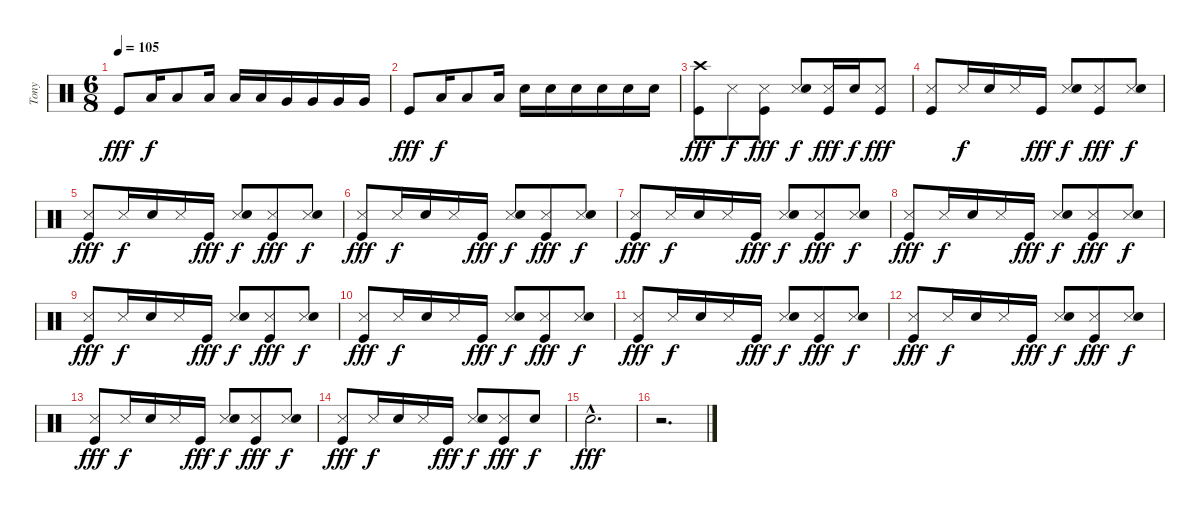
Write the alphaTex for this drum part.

\track ("Tony" "Tony") {instrument percussion}
\staff {score}
\articulation defaults
\ts (6 8)
\tempo 105
\clef neutral
\ks c "Kick (hit)".8{dy fff} "Low Tom (hit)".16{dy f} "Low Tom (hit)".8 "Low Tom (hit)".16 "Low Tom (hit)".16 "Low Tom (hit)".16 "Very Low Tom (hit)".16 "Very Low Tom (hit)".16 "Very Low Tom (hit)".16 "Very Low Tom (hit)".16
|
"Kick (hit)".8{dy fff} "Low Tom (hit)".16{dy f} "Low Tom (hit)".8 "Low Tom (hit)".16 "Snare (hit) 2".16 "Snare (hit) 2".16 "Snare (hit) 2".16 "Snare (hit) 2".16 "Snare (hit) 2".16 "Snare (hit) 2".16 |
("Crash high (hit)" "Kick (hit)").8{dy fff} "Snare (side stick) 3".8{dy f} ("Snare (side stick) 3" "Kick (hit)").8{dy fff} ("Snare (side stick) 3" "Snare (hit) 2").8{dy f} ("Snare (side stick) 3" "Kick (hit)").16{dy fff} "Snare (hit) 2".16{dy f} ("Snare (side stick) 3" "Kick (hit)").8{dy fff} |
("Snare (side stick) 3" "Kick (hit)").8 "Snare (side stick) 3".16{dy f} "Snare (hit) 2".16 "Snare (side stick) 3".16 "Kick (hit)".16{dy fff} ("Snare (side stick) 3" "Snare (hit) 2").8{dy f} ("Snare (side stick) 3" "Kick (hit)").8{dy fff} ("Snare (side stick) 3" "Snare (hit) 2").8{dy f} |
("Snare (side stick) 3" "Kick (hit)").8{dy fff} "Snare (side stick) 3".16{dy f} "Snare (hit) 2".16 "Snare (side stick) 3".16 "Kick (hit)".16{dy fff} ("Snare (side stick) 3" "Snare (hit) 2").8{dy f} ("Snare (side stick) 3" "Kick (hit)").8{dy fff} ("Snare (side stick) 3" "Snare (hit) 2").8{dy f} |
("Snare (side stick) 3" "Kick (hit)").8{dy fff} "Snare (side stick) 3".16{dy f} "Snare (hit) 2".16 "Snare (side stick) 3".16 "Kick (hit)".16{dy fff} ("Snare (side stick) 3" "Snare (hit) 2").8{dy f} ("Snare (side stick) 3" "Kick (hit)").8{dy fff} ("Snare (side stick) 3" "Snare (hit) 2").8{dy f} |
("Snare (side stick) 3" "Kick (hit)").8{dy fff} "Snare (side stick) 3".16{dy f} "Snare (hit) 2".16 "Snare (side stick) 3".16 "Kick (hit)".16{dy fff} ("Snare (side stick) 3" "Snare (hit) 2").8{dy f} ("Snare (side stick) 3" "Kick (hit)").8{dy fff} ("Snare (side stick) 3" "Snare (hit) 2").8{dy f} |
("Snare (side stick) 3" "Kick (hit)").8{dy fff} "Snare (side stick) 3".16{dy f} "Snare (hit) 2".16 "Snare (side stick) 3".16 "Kick (hit)".16{dy fff} ("Snare (side stick) 3" "Snare (hit) 2").8{dy f} ("Snare (side stick) 3" "Kick (hit)").8{dy fff} ("Snare (side stick) 3" "Snare (hit) 2").8{dy f} |
("Snare (side stick) 3" "Kick (hit)").8{dy fff} "Snare (side stick) 3".16{dy f} "Snare (hit) 2".16 "Snare (side stick) 3".16 "Kick (hit)".16{dy fff} ("Snare (side stick) 3" "Snare (hit) 2").8{dy f} ("Snare (side stick) 3" "Kick (hit)").8{dy fff} ("Snare (side stick) 3" "Snare (hit) 2").8{dy f} |
("Snare (side stick) 3" "Kick (hit)").8{dy fff} "Snare (side stick) 3".16{dy f} "Snare (hit) 2".16 "Snare (side stick) 3".16 "Kick (hit)".16{dy fff} ("Snare (side stick) 3" "Snare (hit) 2").8{dy f} ("Snare (side stick) 3" "Kick (hit)").8{dy fff} ("Snare (side stick) 3" "Snare (hit) 2").8{dy f} |
("Snare (side stick) 3" "Kick (hit)").8{dy fff} "Snare (side stick) 3".16{dy f} "Snare (hit) 2".16 "Snare (side stick) 3".16 "Kick (hit)".16{dy fff} ("Snare (side stick) 3" "Snare (hit) 2").8{dy f} ("Snare (side stick) 3" "Kick (hit)").8{dy fff} ("Snare (side stick) 3" "Snare (hit) 2").8{dy f} |
("Snare (side stick) 3" "Kick (hit)").8{dy fff} "Snare (side stick) 3".16{dy f} "Snare (hit) 2".16 "Snare (side stick) 3".16 "Kick (hit)".16{dy fff} ("Snare (side stick) 3" "Snare (hit) 2").8{dy f} ("Snare (side stick) 3" "Kick (hit)").8{dy fff} ("Snare (side stick) 3" "Snare (hit) 2").8{dy f} |
("Snare (side stick) 3" "Kick (hit)").8{dy fff} "Snare (side stick) 3".16{dy f} "Snare (hit) 2".16 "Snare (side stick) 3".16 "Kick (hit)".16{dy fff} ("Snare (side stick) 3" "Snare (hit) 2").8{dy f} ("Snare (side stick) 3" "Kick (hit)").8{dy fff} ("Snare (side stick) 3" "Snare (hit) 2").8{dy f} |
("Snare (side stick) 3" "Kick (hit)").8{dy fff} "Snare (side stick) 3".16{dy f} "Snare (hit) 2".16 "Snare (side stick) 3".16 "Kick (hit)".16{dy fff} ("Snare (side stick) 3" "Snare (hit) 2").8{dy f} ("Snare (side stick) 3" "Kick (hit)").8{dy fff} "Snare (hit) 2".8{dy f} |
"Snare (hit) 2"{hac}.2{d dy fff} |
r.2{d}
